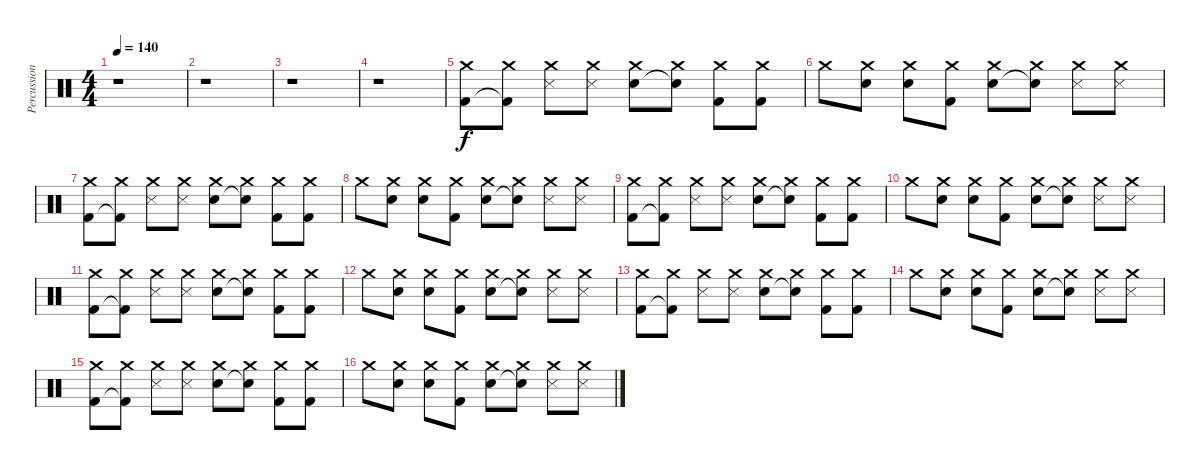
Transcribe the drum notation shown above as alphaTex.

\track ("Percussions" "Percussion") {instrument percussion}
\staff {score}
\articulation defaults
\ts (4 4)
\tempo 140
\clef neutral
\ks c
r.1{dy f} |
r.1 |
r.1 |
r.1 |
("Crash medium (hit)" "Kick (hit) 2").8 ("Crash medium (hit)" "Kick (hit) 2"{t}).8 ("Crash medium (hit)" "Snare (side stick) 3").8 ("Crash medium (hit)" "Snare (side stick) 3").8 ("Crash medium (hit)" "Electric Snare (hit)").8 ("Crash medium (hit)" "Snare (hit)"{t}).8 ("Crash medium (hit)" "Kick (hit) 2").8 ("Crash medium (hit)" "Kick (hit) 2").8 |
"Crash medium (hit)".8 ("Crash medium (hit)" "Electric Snare (hit)").8 ("Crash medium (hit)" "Snare (hit) 2").8 ("Crash medium (hit)" "Kick (hit) 2").8 ("Crash medium (hit)" "Electric Snare (hit)").8 ("Crash medium (hit)" "Snare (hit)"{t}).8 ("Crash medium (hit)" "Snare (side stick) 3").8 ("Crash medium (hit)" "Snare (side stick) 3").8 |
("Crash medium (hit)" "Kick (hit) 2").8 ("Crash medium (hit)" "Kick (hit) 2"{t}).8 ("Crash medium (hit)" "Snare (side stick) 3").8 ("Crash medium (hit)" "Snare (side stick) 3").8 ("Crash medium (hit)" "Electric Snare (hit)").8 ("Crash medium (hit)" "Snare (hit)"{t}).8 ("Crash medium (hit)" "Kick (hit) 2").8 ("Crash medium (hit)" "Kick (hit) 2").8 |
"Crash medium (hit)".8 ("Crash medium (hit)" "Electric Snare (hit)").8 ("Crash medium (hit)" "Snare (hit) 2").8 ("Crash medium (hit)" "Kick (hit) 2").8 ("Crash medium (hit)" "Electric Snare (hit)").8 ("Crash medium (hit)" "Snare (hit)"{t}).8 ("Crash medium (hit)" "Snare (side stick) 3").8 ("Crash medium (hit)" "Snare (side stick) 3").8 |
("Crash medium (hit)" "Kick (hit) 2").8 ("Crash medium (hit)" "Kick (hit) 2"{t}).8 ("Crash medium (hit)" "Snare (side stick) 3").8 ("Crash medium (hit)" "Snare (side stick) 3").8 ("Crash medium (hit)" "Electric Snare (hit)").8 ("Crash medium (hit)" "Snare (hit)"{t}).8 ("Crash medium (hit)" "Kick (hit) 2").8 ("Crash medium (hit)" "Kick (hit) 2").8 |
"Crash medium (hit)".8 ("Crash medium (hit)" "Electric Snare (hit)").8 ("Crash medium (hit)" "Snare (hit) 2").8 ("Crash medium (hit)" "Kick (hit) 2").8 ("Crash medium (hit)" "Electric Snare (hit)").8 ("Crash medium (hit)" "Snare (hit)"{t}).8 ("Crash medium (hit)" "Snare (side stick) 3").8 ("Crash medium (hit)" "Snare (side stick) 3").8 |
("Crash medium (hit)" "Kick (hit) 2").8 ("Crash medium (hit)" "Kick (hit) 2"{t}).8 ("Crash medium (hit)" "Snare (side stick) 3").8 ("Crash medium (hit)" "Snare (side stick) 3").8 ("Crash medium (hit)" "Electric Snare (hit)").8 ("Crash medium (hit)" "Snare (hit)"{t}).8 ("Crash medium (hit)" "Kick (hit) 2").8 ("Crash medium (hit)" "Kick (hit) 2").8 |
"Crash medium (hit)".8 ("Crash medium (hit)" "Electric Snare (hit)").8 ("Crash medium (hit)" "Snare (hit) 2").8 ("Crash medium (hit)" "Kick (hit) 2").8 ("Crash medium (hit)" "Electric Snare (hit)").8 ("Crash medium (hit)" "Snare (hit)"{t}).8 ("Crash medium (hit)" "Snare (side stick) 3").8 ("Crash medium (hit)" "Snare (side stick) 3").8 |
("Crash medium (hit)" "Kick (hit) 2").8 ("Crash medium (hit)" "Kick (hit) 2"{t}).8 ("Crash medium (hit)" "Snare (side stick) 3").8 ("Crash medium (hit)" "Snare (side stick) 3").8 ("Crash medium (hit)" "Electric Snare (hit)").8 ("Crash medium (hit)" "Snare (hit)"{t}).8 ("Crash medium (hit)" "Kick (hit) 2").8 ("Crash medium (hit)" "Kick (hit) 2").8 |
"Crash medium (hit)".8 ("Crash medium (hit)" "Electric Snare (hit)").8 ("Crash medium (hit)" "Snare (hit) 2").8 ("Crash medium (hit)" "Kick (hit) 2").8 ("Crash medium (hit)" "Electric Snare (hit)").8 ("Crash medium (hit)" "Snare (hit)"{t}).8 ("Crash medium (hit)" "Snare (side stick) 3").8 ("Crash medium (hit)" "Snare (side stick) 3").8 |
("Crash medium (hit)" "Kick (hit) 2").8 ("Crash medium (hit)" "Kick (hit) 2"{t}).8 ("Crash medium (hit)" "Snare (side stick) 3").8 ("Crash medium (hit)" "Snare (side stick) 3").8 ("Crash medium (hit)" "Electric Snare (hit)").8 ("Crash medium (hit)" "Snare (hit)"{t}).8 ("Crash medium (hit)" "Kick (hit) 2").8 ("Crash medium (hit)" "Kick (hit) 2").8 |
"Crash medium (hit)".8 ("Crash medium (hit)" "Electric Snare (hit)").8 ("Crash medium (hit)" "Snare (hit) 2").8 ("Crash medium (hit)" "Kick (hit) 2").8 ("Crash medium (hit)" "Electric Snare (hit)").8 ("Crash medium (hit)" "Snare (hit)"{t}).8 ("Crash medium (hit)" "Snare (side stick) 3").8 ("Crash medium (hit)" "Snare (side stick) 3").8
